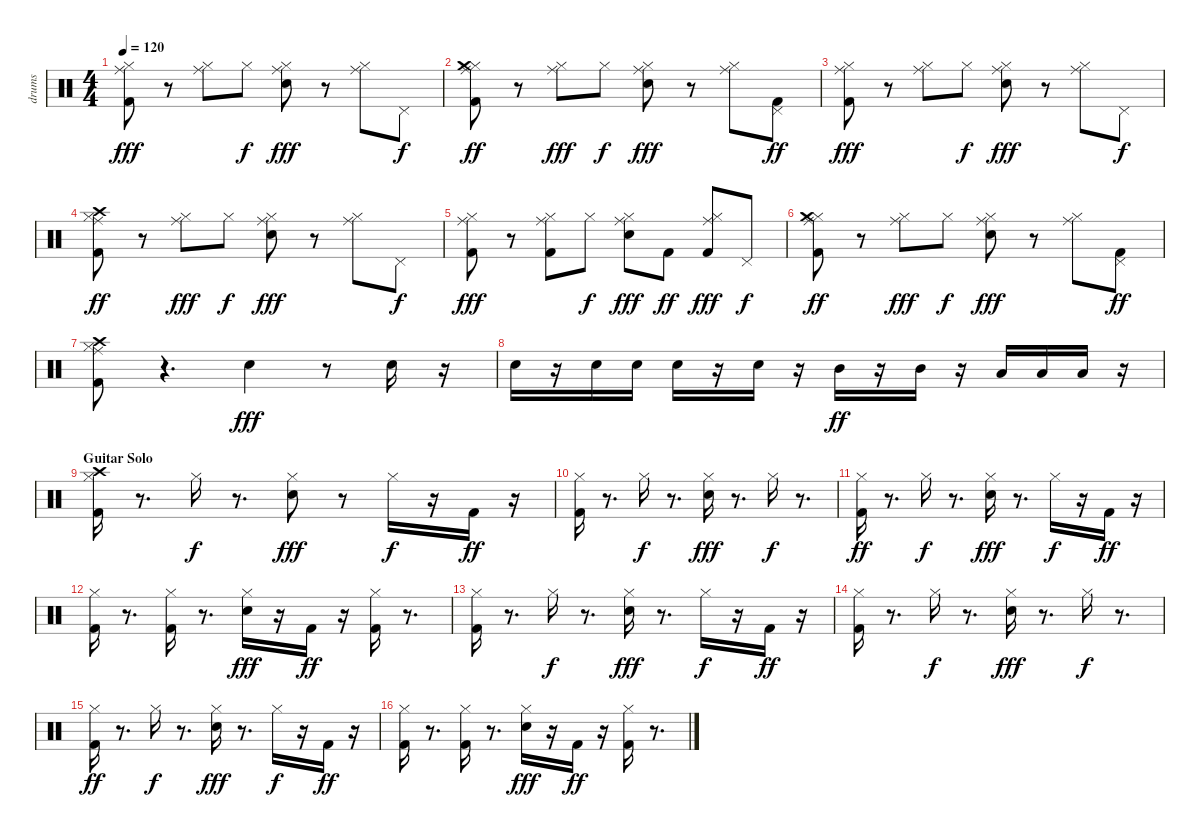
\track ("drums" "drums") {instrument percussion}
\staff {score}
\articulation defaults
\ts (4 4)
\tempo 120
\clef neutral
\ks c
("Kick (hit) 2" "Hi-Hat (closed)" "Ride (middle)").8{dy fff} r.8 ("Hi-Hat (closed)" "Ride (middle)").8 "Hi-Hat (closed)".8{dy f} ("Snare (hit) 2" "Hi-Hat (closed)" "Ride (middle)").8{dy fff} r.8 ("Hi-Hat (closed)" "Ride (middle)").8 "Pedal Hi-Hat (hit)".8{dy f} |
("Kick (hit) 2" "Hi-Hat (closed)" "Ride (middle)" "Crash medium (hit)").8{dy ff} r.8 ("Hi-Hat (closed)" "Ride (middle)").8{dy fff} "Hi-Hat (closed)".8{dy f} ("Snare (hit) 2" "Hi-Hat (closed)" "Ride (middle)").8{dy fff} r.8 ("Hi-Hat (closed)" "Ride (middle)").8 ("Kick (hit) 2" "Pedal Hi-Hat (hit)").8{dy ff} |
("Kick (hit) 2" "Hi-Hat (closed)" "Ride (middle)").8{dy fff} r.8 ("Hi-Hat (closed)" "Ride (middle)").8 "Hi-Hat (closed)".8{dy f} ("Snare (hit) 2" "Hi-Hat (closed)" "Ride (middle)").8{dy fff} r.8 ("Hi-Hat (closed)" "Ride (middle)").8 "Pedal Hi-Hat (hit)".8{dy f} |
("Kick (hit) 2" "Hi-Hat (closed)" "Ride (middle)" "Crash high (hit)").8{dy ff} r.8 ("Hi-Hat (closed)" "Ride (middle)").8{dy fff} "Hi-Hat (closed)".8{dy f} ("Snare (hit) 2" "Hi-Hat (closed)" "Ride (middle)").8{dy fff} r.8 ("Hi-Hat (closed)" "Ride (middle)").8 "Pedal Hi-Hat (hit)".8{dy f} |
("Kick (hit) 2" "Hi-Hat (closed)" "Ride (middle)").8{dy fff} r.8 ("Kick (hit) 2" "Hi-Hat (closed)" "Ride (middle)").8 "Hi-Hat (closed)".8{dy f} ("Snare (hit) 2" "Hi-Hat (closed)" "Ride (middle)").8{dy fff} "Kick (hit) 2".8{dy ff} ("Kick (hit) 2" "Hi-Hat (closed)" "Ride (middle)").8{dy fff} "Pedal Hi-Hat (hit)".8{dy f} |
("Kick (hit) 2" "Hi-Hat (closed)" "Ride (middle)" "Crash medium (hit)").8{dy ff} r.8 ("Hi-Hat (closed)" "Ride (middle)").8{dy fff} "Hi-Hat (closed)".8{dy f} ("Snare (hit) 2" "Hi-Hat (closed)" "Ride (middle)").8{dy fff} r.8 ("Hi-Hat (closed)" "Ride (middle)").8 ("Kick (hit) 2" "Pedal Hi-Hat (hit)").8{dy ff} |
("Kick (hit) 2" "Hi-Hat (closed)" "Ride (middle)" "Crash high (hit)").8 r.4{d} "Snare (hit) 2".4{dy fff} r.8 "Snare (hit) 2".16 r.16 |
"Snare (hit) 2".16 r.16 "Snare (hit) 2".16 "Snare (hit) 2".16 "Snare (hit) 2".16 r.16 "Snare (hit) 2".16 r.16 "Mid Tom (hit)".16{dy ff} r.16 "Mid Tom (hit)".16 r.16 "Low Floor Tom (hit)".16 "Low Floor Tom (hit)".16 "Low Floor Tom (hit)".16 r.16 |
\section ("" "Guitar Solo")
("Kick (hit) 2" "Hi-Hat (closed)" "Crash high (hit)").16 r.8{d} "Hi-Hat (closed)".16{dy f} r.8{d} ("Snare (hit) 2" "Hi-Hat (closed)").8{dy fff} r.8 "Hi-Hat (closed)".16{dy f} r.16 "Kick (hit) 2".16{dy ff} r.16 |
("Kick (hit) 2" "Hi-Hat (closed)").16 r.8{d} "Hi-Hat (closed)".16{dy f} r.8{d} ("Snare (hit) 2" "Hi-Hat (closed)").16{dy fff} r.8{d} "Hi-Hat (closed)".16{dy f} r.8{d} |
("Kick (hit) 2" "Hi-Hat (closed)").16{dy ff} r.8{d} "Hi-Hat (closed)".16{dy f} r.8{d} ("Snare (hit) 2" "Hi-Hat (closed)").16{dy fff} r.8{d} "Hi-Hat (closed)".16{dy f} r.16 "Kick (hit) 2".16{dy ff} r.16 |
("Kick (hit) 2" "Hi-Hat (closed)").16 r.8{d} ("Kick (hit) 2" "Hi-Hat (closed)").16 r.8{d} ("Snare (hit) 2" "Hi-Hat (closed)").16{dy fff} r.16 "Kick (hit) 2".16{dy ff} r.16 ("Kick (hit) 2" "Hi-Hat (closed)").16 r.8{d} |
("Kick (hit) 2" "Hi-Hat (closed)").16 r.8{d} "Hi-Hat (closed)".16{dy f} r.8{d} ("Snare (hit) 2" "Hi-Hat (closed)").16{dy fff} r.8{d} "Hi-Hat (closed)".16{dy f} r.16 "Kick (hit) 2".16{dy ff} r.16 |
("Kick (hit) 2" "Hi-Hat (closed)").16 r.8{d} "Hi-Hat (closed)".16{dy f} r.8{d} ("Snare (hit) 2" "Hi-Hat (closed)").16{dy fff} r.8{d} "Hi-Hat (closed)".16{dy f} r.8{d} |
("Kick (hit) 2" "Hi-Hat (closed)").16{dy ff} r.8{d} "Hi-Hat (closed)".16{dy f} r.8{d} ("Snare (hit) 2" "Hi-Hat (closed)").16{dy fff} r.8{d} "Hi-Hat (closed)".16{dy f} r.16 "Kick (hit) 2".16{dy ff} r.16 |
("Kick (hit) 2" "Hi-Hat (closed)").16 r.8{d} ("Kick (hit) 2" "Hi-Hat (closed)").16 r.8{d} ("Snare (hit) 2" "Hi-Hat (closed)").16{dy fff} r.16 "Kick (hit) 2".16{dy ff} r.16 ("Kick (hit) 2" "Hi-Hat (closed)").16 r.8{d}
